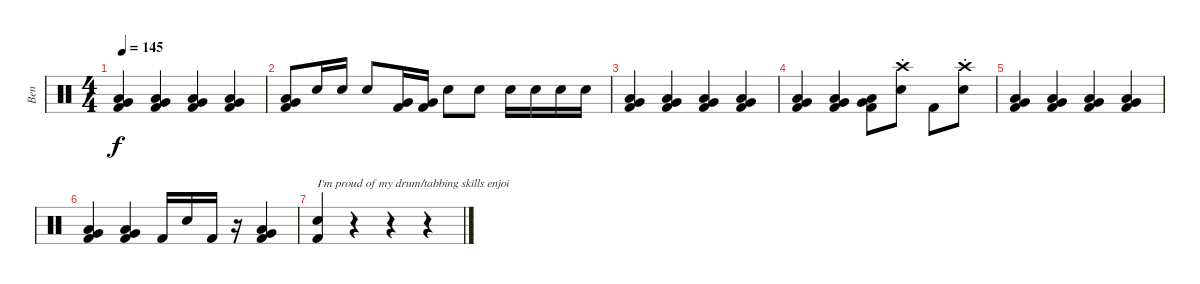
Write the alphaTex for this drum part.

\track ("Ben" "Ben") {instrument percussion}
\staff {score}
\articulation defaults
\ts (4 4)
\tempo 145
\clef neutral
\ks c
("Very Low Tom (hit)" "Low Floor Tom (hit)" "Kick (hit) 2").4{dy f} ("Very Low Tom (hit)" "Low Floor Tom (hit)" "Kick (hit) 2").4 ("Very Low Tom (hit)" "Low Floor Tom (hit)" "Kick (hit) 2").4 ("Very Low Tom (hit)" "Low Floor Tom (hit)" "Kick (hit) 2").4 |
("Very Low Tom (hit)" "Low Floor Tom (hit)" "Kick (hit) 2").8 "Electric Snare (hit)".16 "Electric Snare (hit)".16 "Electric Snare (hit)".8 ("Very Low Tom (hit)" "Kick (hit) 2").16 ("Very Low Tom (hit)" "Kick (hit) 2").16 "Electric Snare (hit)".8 "Electric Snare (hit)".8 "Electric Snare (hit)".16 "Electric Snare (hit)".16 "Electric Snare (hit)".16 "Electric Snare (hit)".16 |
("Very Low Tom (hit)" "Low Floor Tom (hit)" "Kick (hit) 2").4 ("Very Low Tom (hit)" "Low Floor Tom (hit)" "Kick (hit) 2").4 ("Very Low Tom (hit)" "Low Floor Tom (hit)" "Kick (hit) 2").4 ("Very Low Tom (hit)" "Low Floor Tom (hit)" "Kick (hit) 2").4 |
("Very Low Tom (hit)" "Low Floor Tom (hit)" "Kick (hit) 2").4 ("Very Low Tom (hit)" "Low Floor Tom (hit)" "Kick (hit) 2").4 ("Very Low Tom (hit)" "Low Floor Tom (hit)" "Kick (hit) 2").8 ("Crash high (hit)"{st} "Electric Snare (hit)"{st}).8 "Kick (hit) 2".8 ("Crash high (hit)"{st} "Electric Snare (hit)"{st}).8 |
("Very Low Tom (hit)" "Low Floor Tom (hit)" "Kick (hit) 2").4 ("Very Low Tom (hit)" "Low Floor Tom (hit)" "Kick (hit) 2").4 ("Very Low Tom (hit)" "Low Floor Tom (hit)" "Kick (hit) 2").4 ("Very Low Tom (hit)" "Low Floor Tom (hit)" "Kick (hit) 2").4 |
("Very Low Tom (hit)" "Low Floor Tom (hit)" "Kick (hit) 2").4 ("Very Low Tom (hit)" "Low Floor Tom (hit)" "Kick (hit) 2").4 "Kick (hit) 2".16 "Electric Snare (hit)".16 "Kick (hit) 2".16 r.16 ("Very Low Tom (hit)" "Low Floor Tom (hit)" "Kick (hit) 2").4 |
("Electric Snare (hit)" "Kick (hit) 2").4{txt "I'm proud of my drum/tabbing skills enjoi"} r.4 r.4 r.4
